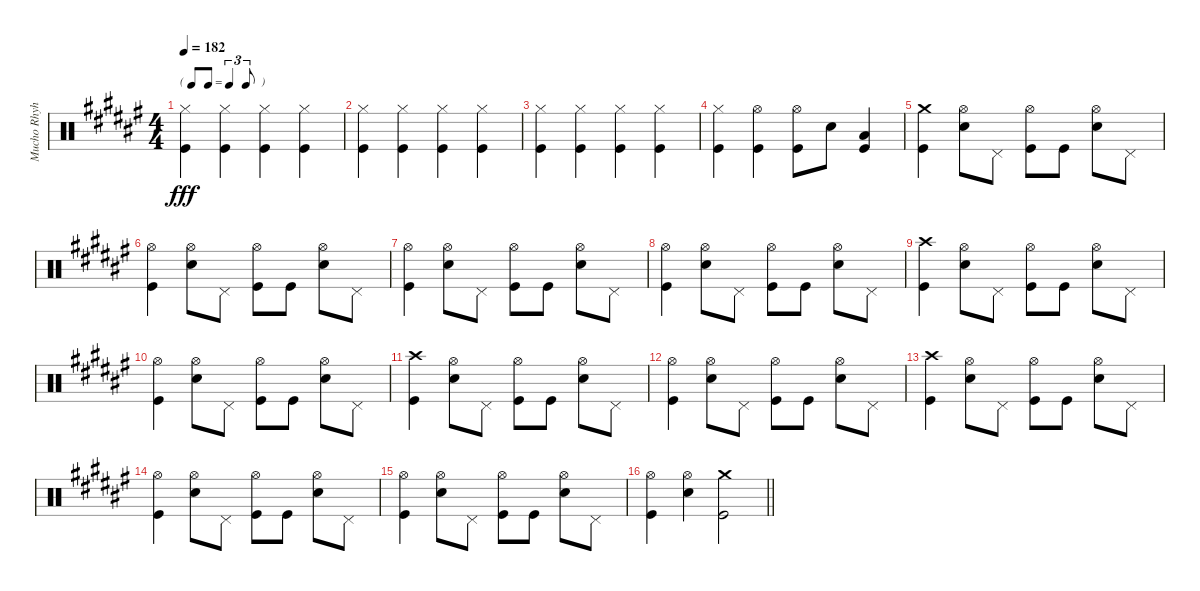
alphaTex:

\track ("Mucho Rhyhtm" "Mucho Rhyh") {instrument percussion}
\staff {score}
\articulation defaults
\ts (4 4)
\tf triplet8th
\tempo 182
\clef neutral
\ks f#
("Hi-Hat (closed)" "Kick (hit)").4{dy fff} ("Hi-Hat (closed)" "Kick (hit)").4 ("Hi-Hat (closed)" "Kick (hit)").4 ("Hi-Hat (closed)" "Kick (hit)").4 |
("Hi-Hat (closed)" "Kick (hit)").4 ("Hi-Hat (closed)" "Kick (hit)").4 ("Hi-Hat (closed)" "Kick (hit)").4 ("Hi-Hat (closed)" "Kick (hit)").4 |
("Hi-Hat (closed)" "Kick (hit)").4 ("Hi-Hat (closed)" "Kick (hit)").4 ("Hi-Hat (closed)" "Kick (hit)").4 ("Hi-Hat (closed)" "Kick (hit)").4 |
("Hi-Hat (closed)" "Kick (hit)").4 ("Hi-Hat (open)" "Kick (hit)").4 ("Hi-Hat (open)" "Kick (hit)").8 "Snare (hit) 2".8 ("Low Tom (hit)" "Kick (hit)").4 |
("Crash medium (hit)" "Kick (hit)").4 ("Hi-Hat (open)" "Snare (hit) 2").8 "Pedal Hi-Hat (hit)".8 ("Hi-Hat (open)" "Kick (hit)").8 "Kick (hit)".8 ("Hi-Hat (open)" "Snare (hit) 2").8 "Pedal Hi-Hat (hit)".8 |
("Hi-Hat (open)" "Kick (hit)").4 ("Hi-Hat (open)" "Snare (hit) 2").8 "Pedal Hi-Hat (hit)".8 ("Hi-Hat (open)" "Kick (hit)").8 "Kick (hit)".8 ("Hi-Hat (open)" "Snare (hit) 2").8 "Pedal Hi-Hat (hit)".8 |
("Hi-Hat (open)" "Kick (hit)").4 ("Hi-Hat (open)" "Snare (hit) 2").8 "Pedal Hi-Hat (hit)".8 ("Hi-Hat (open)" "Kick (hit)").8 "Kick (hit)".8 ("Hi-Hat (open)" "Snare (hit) 2").8 "Pedal Hi-Hat (hit)".8 |
("Hi-Hat (open)" "Kick (hit)").4 ("Hi-Hat (open)" "Snare (hit) 2").8 "Pedal Hi-Hat (hit)".8 ("Hi-Hat (open)" "Kick (hit)").8 "Kick (hit)".8 ("Hi-Hat (open)" "Snare (hit) 2").8 "Pedal Hi-Hat (hit)".8 |
("Crash high (hit)" "Kick (hit)").4 ("Hi-Hat (open)" "Snare (hit) 2").8 "Pedal Hi-Hat (hit)".8 ("Hi-Hat (open)" "Kick (hit)").8 "Kick (hit)".8 ("Hi-Hat (open)" "Snare (hit) 2").8 "Pedal Hi-Hat (hit)".8 |
("Hi-Hat (open)" "Kick (hit)").4 ("Hi-Hat (open)" "Snare (hit) 2").8 "Pedal Hi-Hat (hit)".8 ("Hi-Hat (open)" "Kick (hit)").8 "Kick (hit)".8 ("Hi-Hat (open)" "Snare (hit) 2").8 "Pedal Hi-Hat (hit)".8 |
("Crash high (hit)" "Kick (hit)").4 ("Hi-Hat (open)" "Snare (hit) 2").8 "Pedal Hi-Hat (hit)".8 ("Hi-Hat (open)" "Kick (hit)").8 "Kick (hit)".8 ("Hi-Hat (open)" "Snare (hit) 2").8 "Pedal Hi-Hat (hit)".8 |
("Hi-Hat (open)" "Kick (hit)").4 ("Hi-Hat (open)" "Snare (hit) 2").8 "Pedal Hi-Hat (hit)".8 ("Hi-Hat (open)" "Kick (hit)").8 "Kick (hit)".8 ("Hi-Hat (open)" "Snare (hit) 2").8 "Pedal Hi-Hat (hit)".8 |
("Crash high (hit)" "Kick (hit)").4 ("Hi-Hat (open)" "Snare (hit) 2").8 "Pedal Hi-Hat (hit)".8 ("Hi-Hat (open)" "Kick (hit)").8 "Kick (hit)".8 ("Hi-Hat (open)" "Snare (hit) 2").8 "Pedal Hi-Hat (hit)".8 |
("Hi-Hat (open)" "Kick (hit)").4 ("Hi-Hat (open)" "Snare (hit) 2").8 "Pedal Hi-Hat (hit)".8 ("Hi-Hat (open)" "Kick (hit)").8 "Kick (hit)".8 ("Hi-Hat (open)" "Snare (hit) 2").8 "Pedal Hi-Hat (hit)".8 |
("Hi-Hat (open)" "Kick (hit)").4 ("Hi-Hat (open)" "Snare (hit) 2").8 "Pedal Hi-Hat (hit)".8 ("Hi-Hat (open)" "Kick (hit)").8 "Kick (hit)".8 ("Hi-Hat (open)" "Snare (hit) 2").8 "Pedal Hi-Hat (hit)".8 |
\barLineRight lightlight
("Hi-Hat (open)" "Kick (hit)").4 ("Hi-Hat (open)" "Snare (hit) 2").4 ("Crash medium (hit)" "Kick (hit)").2
